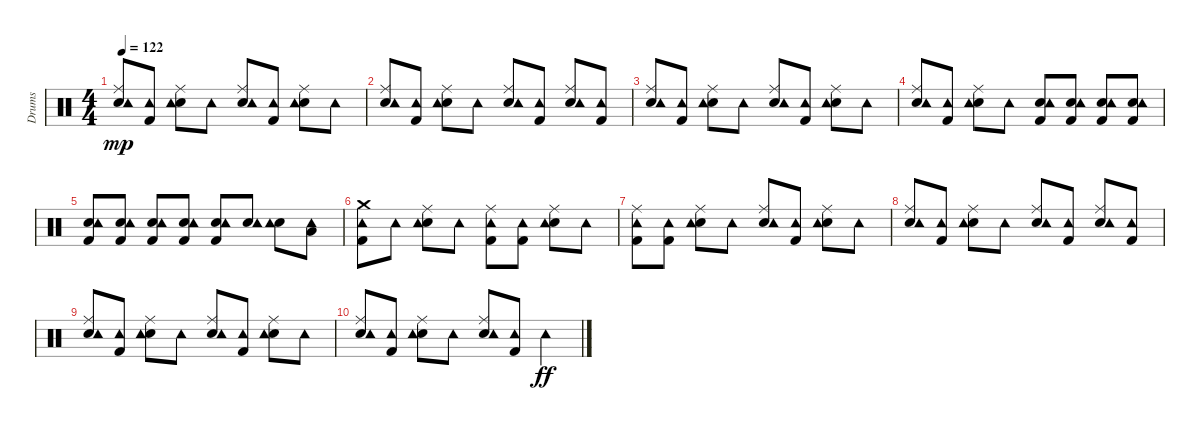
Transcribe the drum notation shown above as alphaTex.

\track ("Drums" "Drums") {instrument percussion}
\staff {score}
\articulation defaults
\ts (4 4)
\tempo 122
\clef neutral
\ks c
("Snare (hit) 2" "Ride (middle)" "Tambourine (hit)").8{dy mp} ("Kick (hit) 2" "Tambourine (hit)").8 ("Snare (hit) 2" "Ride (middle)" "Tambourine (hit)").8 "Tambourine (hit)".8 ("Snare (hit) 2" "Ride (middle)" "Tambourine (hit)").8 ("Kick (hit) 2" "Tambourine (hit)").8 ("Snare (hit) 2" "Ride (middle)" "Tambourine (hit)").8 "Tambourine (hit)".8 |
("Snare (hit) 2" "Ride (middle)" "Tambourine (hit)").8 ("Kick (hit) 2" "Tambourine (hit)").8 ("Snare (hit) 2" "Ride (middle)" "Tambourine (hit)").8 "Tambourine (hit)".8 ("Snare (hit) 2" "Ride (middle)" "Tambourine (hit)").8 ("Kick (hit) 2" "Tambourine (hit)").8 ("Snare (hit) 2" "Ride (middle)" "Tambourine (hit)").8 ("Kick (hit) 2" "Tambourine (hit)").8 |
("Snare (hit) 2" "Ride (middle)" "Tambourine (hit)").8 ("Kick (hit) 2" "Tambourine (hit)").8 ("Snare (hit) 2" "Ride (middle)" "Tambourine (hit)").8 "Tambourine (hit)".8 ("Snare (hit) 2" "Ride (middle)" "Tambourine (hit)").8 ("Kick (hit) 2" "Tambourine (hit)").8 ("Snare (hit) 2" "Ride (middle)" "Tambourine (hit)").8 "Tambourine (hit)".8 |
("Snare (hit) 2" "Ride (middle)" "Tambourine (hit)").8 ("Kick (hit) 2" "Tambourine (hit)").8 ("Snare (hit) 2" "Ride (middle)" "Tambourine (hit)").8 "Tambourine (hit)".8 ("Kick (hit) 2" "Snare (hit) 2" "Tambourine (hit)").8 ("Kick (hit) 2" "Snare (hit) 2" "Tambourine (hit)").8 ("Kick (hit) 2" "Snare (hit) 2" "Tambourine (hit)").8 ("Kick (hit) 2" "Snare (hit) 2" "Tambourine (hit)").8 |
("Kick (hit) 2" "Snare (hit) 2" "Tambourine (hit)").8 ("Kick (hit) 2" "Snare (hit) 2" "Tambourine (hit)").8 ("Kick (hit) 2" "Snare (hit) 2" "Tambourine (hit)").8 ("Kick (hit) 2" "Snare (hit) 2" "Tambourine (hit)").8 ("Kick (hit) 2" "Snare (hit) 2" "Tambourine (hit)").8 ("Snare (hit) 2" "Tambourine (hit)").8 ("Snare (hit) 2" "Tambourine (hit)").8 ("Low Tom (hit)" "Tambourine (hit)").8 |
("Kick (hit) 2" "Tambourine (hit)" "Crash medium (hit)").8 "Tambourine (hit)".8 ("Snare (hit) 2" "Ride (middle)" "Tambourine (hit)").8 "Tambourine (hit)".8 ("Kick (hit) 2" "Ride (middle)" "Tambourine (hit)").8 ("Kick (hit) 2" "Tambourine (hit)").8 ("Snare (hit) 2" "Ride (middle)" "Tambourine (hit)").8 "Tambourine (hit)".8 |
("Kick (hit) 2" "Ride (middle)" "Tambourine (hit)").8 ("Kick (hit) 2" "Tambourine (hit)").8 ("Snare (hit) 2" "Ride (middle)" "Tambourine (hit)").8 "Tambourine (hit)".8 ("Snare (hit) 2" "Ride (middle)" "Tambourine (hit)").8 ("Kick (hit) 2" "Tambourine (hit)").8 ("Snare (hit) 2" "Ride (middle)" "Tambourine (hit)").8 "Tambourine (hit)".8 |
("Snare (hit) 2" "Ride (middle)" "Tambourine (hit)").8 ("Kick (hit) 2" "Tambourine (hit)").8 ("Snare (hit) 2" "Ride (middle)" "Tambourine (hit)").8 "Tambourine (hit)".8 ("Snare (hit) 2" "Ride (middle)" "Tambourine (hit)").8 ("Kick (hit) 2" "Tambourine (hit)").8 ("Snare (hit) 2" "Ride (middle)" "Tambourine (hit)").8 ("Kick (hit) 2" "Tambourine (hit)").8 |
("Snare (hit) 2" "Ride (middle)" "Tambourine (hit)").8 ("Kick (hit) 2" "Tambourine (hit)").8 ("Snare (hit) 2" "Ride (middle)" "Tambourine (hit)").8 "Tambourine (hit)".8 ("Snare (hit) 2" "Ride (middle)" "Tambourine (hit)").8 ("Kick (hit) 2" "Tambourine (hit)").8 ("Snare (hit) 2" "Ride (middle)" "Tambourine (hit)").8 "Tambourine (hit)".8 |
("Snare (hit) 2" "Ride (middle)" "Tambourine (hit)").8 ("Kick (hit) 2" "Tambourine (hit)").8 ("Snare (hit) 2" "Ride (middle)" "Tambourine (hit)").8 "Tambourine (hit)".8 ("Snare (hit) 2" "Ride (middle)" "Tambourine (hit)").8 ("Kick (hit) 2" "Tambourine (hit)").8 "Tambourine (hit)".4{dy ff}
